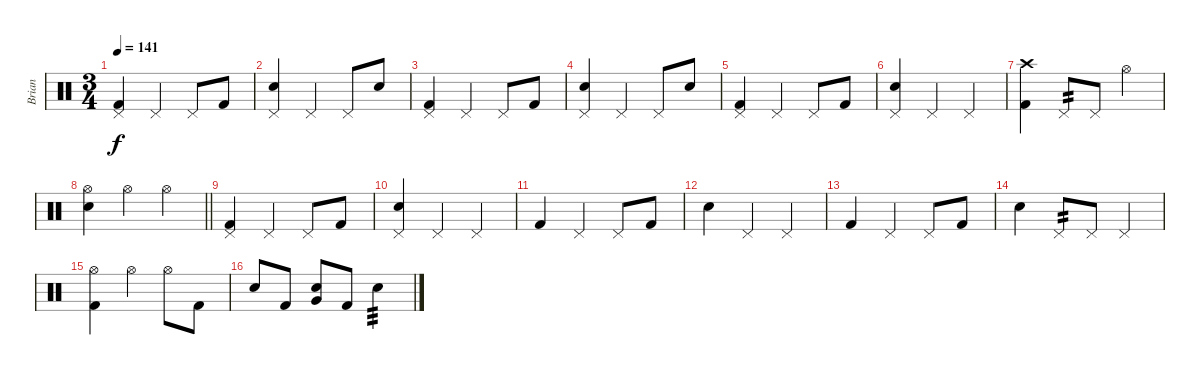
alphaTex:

\track ("Brian" "Brian") {instrument percussion}
\staff {score}
\articulation defaults
\ts (3 4)
\tempo 141
\clef neutral
\ks c
("Pedal Hi-Hat (hit)" "Kick (hit) 2").4{dy f} "Pedal Hi-Hat (hit)".4 "Pedal Hi-Hat (hit)".8 "Kick (hit) 2".8 |
("Pedal Hi-Hat (hit)" "Electric Snare (hit)").4 "Pedal Hi-Hat (hit)".4 "Pedal Hi-Hat (hit)".8 "Electric Snare (hit)".8 |
("Pedal Hi-Hat (hit)" "Kick (hit) 2").4 "Pedal Hi-Hat (hit)".4 "Pedal Hi-Hat (hit)".8 "Kick (hit) 2".8 |
("Pedal Hi-Hat (hit)" "Electric Snare (hit)").4 "Pedal Hi-Hat (hit)".4 "Pedal Hi-Hat (hit)".8 "Electric Snare (hit)".8 |
("Pedal Hi-Hat (hit)" "Kick (hit) 2").4 "Pedal Hi-Hat (hit)".4 "Pedal Hi-Hat (hit)".8 "Kick (hit) 2".8 |
("Pedal Hi-Hat (hit)" "Electric Snare (hit)").4 "Pedal Hi-Hat (hit)".4 "Pedal Hi-Hat (hit)".4 |
("Crash high (hit)" "Kick (hit) 2").4 "Pedal Hi-Hat (hit)".8{tp 2} "Pedal Hi-Hat (hit)".8 "Hi-Hat (open)".4 |
\barLineRight lightlight
("Hi-Hat (open)" "Electric Snare (hit)").4 "Hi-Hat (open)".4 "Hi-Hat (open)".4 |
("Pedal Hi-Hat (hit)" "Kick (hit) 2").4 "Pedal Hi-Hat (hit)".4 "Pedal Hi-Hat (hit)".8 "Kick (hit) 2".8 |
("Pedal Hi-Hat (hit)" "Electric Snare (hit)").4 "Pedal Hi-Hat (hit)".4 "Pedal Hi-Hat (hit)".4 |
"Kick (hit) 2".4 "Pedal Hi-Hat (hit)".4 "Pedal Hi-Hat (hit)".8 "Kick (hit) 2".8 |
"Electric Snare (hit)".4 "Pedal Hi-Hat (hit)".4 "Pedal Hi-Hat (hit)".4 |
"Kick (hit) 2".4 "Pedal Hi-Hat (hit)".4 "Pedal Hi-Hat (hit)".8 "Kick (hit) 2".8 |
"Electric Snare (hit)".4 "Pedal Hi-Hat (hit)".8{tp 2} "Pedal Hi-Hat (hit)".8 "Pedal Hi-Hat (hit)".4 |
("Hi-Hat (open)" "Kick (hit) 2").4 "Hi-Hat (open)".4 "Hi-Hat (open)".8 "Kick (hit) 2".8 |
"Electric Snare (hit)".8 "Kick (hit) 2".8 ("Very Low Tom (hit)" "Electric Snare (hit)").8 "Kick (hit) 2".8 "Electric Snare (hit)".4{tp 3}
